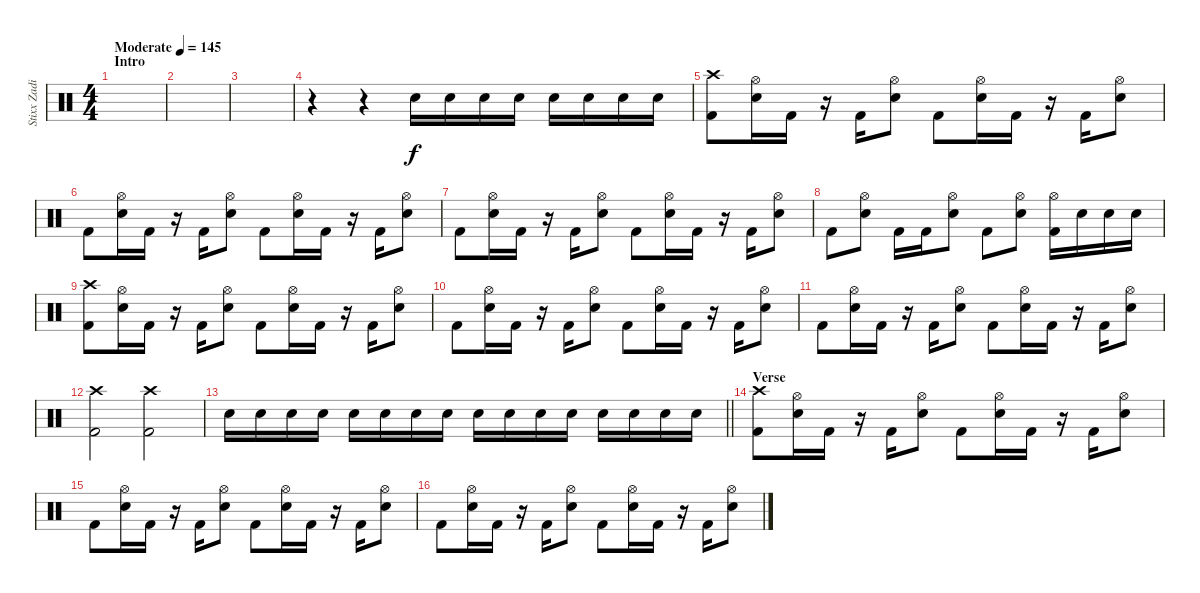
\track ("Stixx Zadina (Sticks it in ya)" "Stixx Zadi") {instrument percussion}
\staff {score}
\articulation defaults
\ts (4 4)
\section ("" "Intro")
\tempo (145 "Moderate")
\clef neutral
\ks c
|
|
|
r.4 r.4 "Electric Snare (hit)".16 "Electric Snare (hit)".16 "Electric Snare (hit)".16 "Electric Snare (hit)".16 "Electric Snare (hit)".16 "Electric Snare (hit)".16 "Electric Snare (hit)".16 "Electric Snare (hit)".16 |
("Crash high (hit)" "Kick (hit) 2").8 ("Hi-Hat (open)" "Electric Snare (hit)").16 "Kick (hit) 2".16 r.16 "Kick (hit) 2".16 ("Hi-Hat (open)" "Electric Snare (hit)").8 "Kick (hit) 2".8 ("Hi-Hat (open)" "Electric Snare (hit)").16 "Kick (hit) 2".16 r.16 "Kick (hit) 2".16 ("Hi-Hat (open)" "Electric Snare (hit)").8 |
"Kick (hit) 2".8 ("Hi-Hat (open)" "Electric Snare (hit)").16 "Kick (hit) 2".16 r.16 "Kick (hit) 2".16 ("Hi-Hat (open)" "Electric Snare (hit)").8 "Kick (hit) 2".8 ("Hi-Hat (open)" "Electric Snare (hit)").16 "Kick (hit) 2".16 r.16 "Kick (hit) 2".16 ("Hi-Hat (open)" "Electric Snare (hit)").8 |
"Kick (hit) 2".8 ("Hi-Hat (open)" "Electric Snare (hit)").16 "Kick (hit) 2".16 r.16 "Kick (hit) 2".16 ("Hi-Hat (open)" "Electric Snare (hit)").8 "Kick (hit) 2".8 ("Hi-Hat (open)" "Electric Snare (hit)").16 "Kick (hit) 2".16 r.16 "Kick (hit) 2".16 ("Hi-Hat (open)" "Electric Snare (hit)").8 |
"Kick (hit) 2".8 ("Hi-Hat (open)" "Electric Snare (hit)").8 "Kick (hit) 2".16 "Kick (hit) 2".16 ("Hi-Hat (open)" "Electric Snare (hit)").8 "Kick (hit) 2".8 ("Hi-Hat (open)" "Electric Snare (hit)").8 ("Hi-Hat (open)" "Kick (hit) 2").16 "Electric Snare (hit)".16 "Electric Snare (hit)".16 "Electric Snare (hit)".16 |
("Crash high (hit)" "Kick (hit) 2").8 ("Hi-Hat (open)" "Electric Snare (hit)").16 "Kick (hit) 2".16 r.16 "Kick (hit) 2".16 ("Hi-Hat (open)" "Electric Snare (hit)").8 "Kick (hit) 2".8 ("Hi-Hat (open)" "Electric Snare (hit)").16 "Kick (hit) 2".16 r.16 "Kick (hit) 2".16 ("Hi-Hat (open)" "Electric Snare (hit)").8 |
"Kick (hit) 2".8 ("Hi-Hat (open)" "Electric Snare (hit)").16 "Kick (hit) 2".16 r.16 "Kick (hit) 2".16 ("Hi-Hat (open)" "Electric Snare (hit)").8 "Kick (hit) 2".8 ("Hi-Hat (open)" "Electric Snare (hit)").16 "Kick (hit) 2".16 r.16 "Kick (hit) 2".16 ("Hi-Hat (open)" "Electric Snare (hit)").8 |
"Kick (hit) 2".8 ("Hi-Hat (open)" "Electric Snare (hit)").16 "Kick (hit) 2".16 r.16 "Kick (hit) 2".16 ("Hi-Hat (open)" "Electric Snare (hit)").8 "Kick (hit) 2".8 ("Hi-Hat (open)" "Electric Snare (hit)").16 "Kick (hit) 2".16 r.16 "Kick (hit) 2".16 ("Hi-Hat (open)" "Electric Snare (hit)").8 |
("Crash high (hit)" "Kick (hit) 2").2 ("Crash high (hit)" "Kick (hit) 2").2 |
\barLineRight lightlight "Electric Snare (hit)".16 "Electric Snare (hit)".16 "Electric Snare (hit)".16 "Electric Snare (hit)".16 "Electric Snare (hit)".16 "Electric Snare (hit)".16 "Electric Snare (hit)".16 "Electric Snare (hit)".16 "Electric Snare (hit)".16 "Electric Snare (hit)".16 "Electric Snare (hit)".16 "Electric Snare (hit)".16 "Electric Snare (hit)".16 "Electric Snare (hit)".16 "Electric Snare (hit)".16 "Electric Snare (hit)".16
|
\section ("" "Verse")
("Crash high (hit)" "Kick (hit) 2").8 ("Hi-Hat (open)" "Electric Snare (hit)").16 "Kick (hit) 2".16 r.16 "Kick (hit) 2".16 ("Hi-Hat (open)" "Electric Snare (hit)").8 "Kick (hit) 2".8 ("Hi-Hat (open)" "Electric Snare (hit)").16 "Kick (hit) 2".16 r.16 "Kick (hit) 2".16 ("Hi-Hat (open)" "Electric Snare (hit)").8 |
"Kick (hit) 2".8 ("Hi-Hat (open)" "Electric Snare (hit)").16 "Kick (hit) 2".16 r.16 "Kick (hit) 2".16 ("Hi-Hat (open)" "Electric Snare (hit)").8 "Kick (hit) 2".8 ("Hi-Hat (open)" "Electric Snare (hit)").16 "Kick (hit) 2".16 r.16 "Kick (hit) 2".16 ("Hi-Hat (open)" "Electric Snare (hit)").8 |
"Kick (hit) 2".8 ("Hi-Hat (open)" "Electric Snare (hit)").16 "Kick (hit) 2".16 r.16 "Kick (hit) 2".16 ("Hi-Hat (open)" "Electric Snare (hit)").8 "Kick (hit) 2".8 ("Hi-Hat (open)" "Electric Snare (hit)").16 "Kick (hit) 2".16 r.16 "Kick (hit) 2".16 ("Hi-Hat (open)" "Electric Snare (hit)").8
